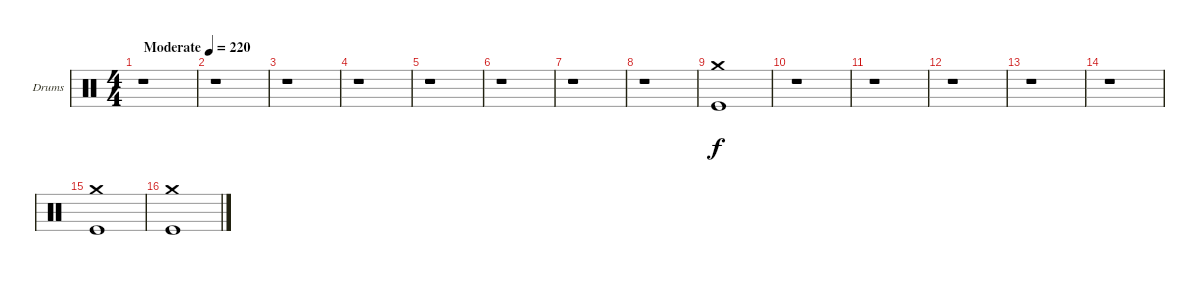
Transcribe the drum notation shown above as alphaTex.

\bracketExtendMode groupsimilarinstruments
\firstSystemTrackNameOrientation horizontal
\otherSystemsTrackNameOrientation horizontal
\track ("Stefan Schwarzmann" "Drums") {instrument percussion}
\staff {score}
\articulation defaults
\ts (4 4)
\beaming (8 2 2 2 2)
\tempo (220 "Moderate")
\clef neutral
\ks c
r.1{dy f} |
r.1 |
r.1 |
r.1 |
r.1 |
r.1 |
r.1 |
r.1 |
("Kick (hit)" "Crash medium (hit)").1 |
r.1 |
r.1 |
r.1 |
r.1 |
r.1 |
("Kick (hit)" "Crash medium (hit)").1 |
("Kick (hit)" "Crash medium (hit)").1
